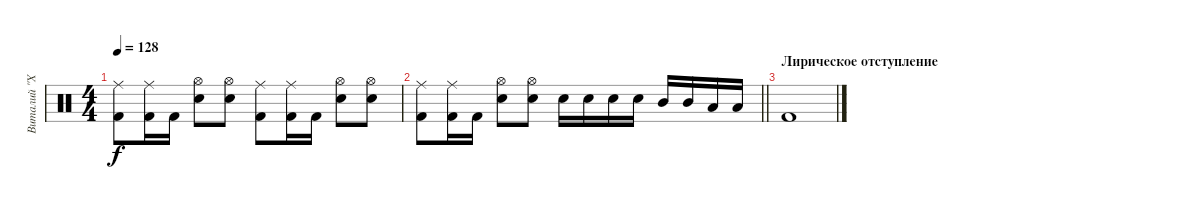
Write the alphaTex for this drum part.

\track ("Виталий \"Хамер\" Лядов" "Виталий \"Х") {instrument percussion}
\staff {score}
\articulation defaults
\ts (4 4)
\tempo 128
\clef neutral
\ks c
("Kick (hit) 2" "Ride (middle)").8{dy f} ("Kick (hit) 2" "Ride (middle)").16 "Kick (hit) 2".16 ("Electric Snare (hit)" "Hi-Hat (open)").8 ("Electric Snare (hit)" "Hi-Hat (open)").8 ("Kick (hit) 2" "Ride (middle)").8 ("Kick (hit) 2" "Ride (middle)").16 "Kick (hit) 2".16 ("Electric Snare (hit)" "Hi-Hat (open)").8 ("Electric Snare (hit)" "Hi-Hat (open)").8 |
\barLineRight lightlight
("Kick (hit) 2" "Ride (middle)").8 ("Kick (hit) 2" "Ride (middle)").16 "Kick (hit) 2".16 ("Electric Snare (hit)" "Hi-Hat (open)").8 ("Electric Snare (hit)" "Hi-Hat (open)").8 "Electric Snare (hit)".16 "Electric Snare (hit)".16 "Electric Snare (hit)".16 "Electric Snare (hit)".16 "Mid Tom (hit)".16 "Mid Tom (hit)".16 "Low Tom (hit)".16 "Low Tom (hit)".16 |
\section ("" "Лирическое отступление")
"Kick (hit) 2".1
